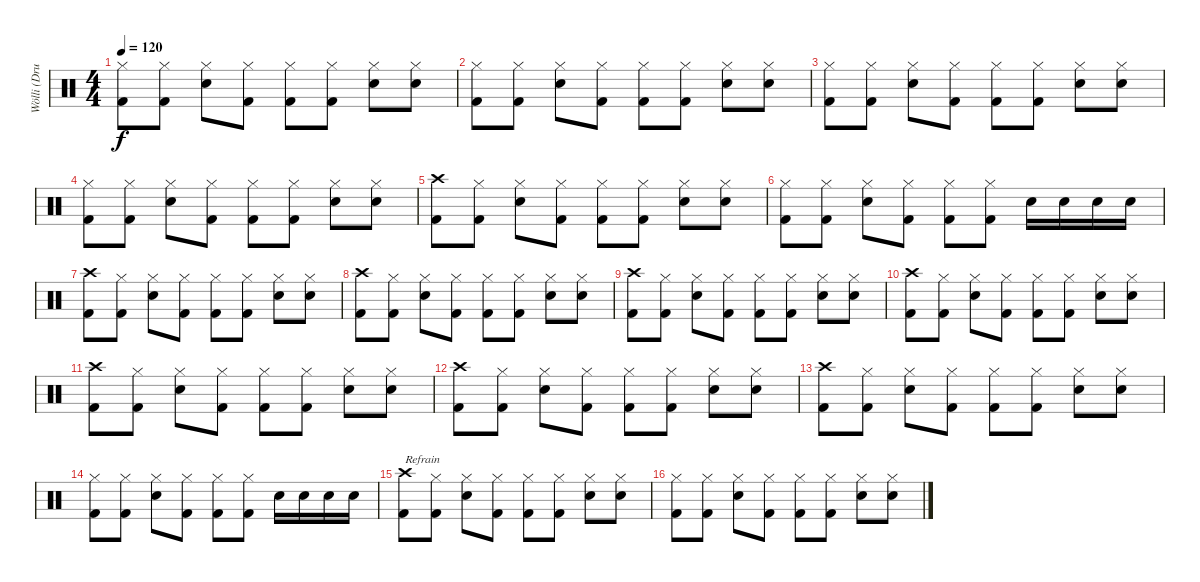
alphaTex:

\track ("Wölli (Drums)" "Wölli (Dru") {instrument percussion}
\staff {score}
\articulation defaults
\ts (4 4)
\tempo 120
\clef neutral
\ks c
("Hi-Hat (closed)" "Kick (hit) 2").8{dy f} ("Hi-Hat (closed)" "Kick (hit) 2").8 ("Hi-Hat (closed)" "Snare (hit) 2").8 ("Hi-Hat (closed)" "Kick (hit) 2").8 ("Hi-Hat (closed)" "Kick (hit) 2").8 ("Hi-Hat (closed)" "Kick (hit) 2").8 ("Hi-Hat (closed)" "Snare (hit) 2").8 ("Hi-Hat (closed)" "Snare (hit) 2").8 |
("Hi-Hat (closed)" "Kick (hit) 2").8 ("Hi-Hat (closed)" "Kick (hit) 2").8 ("Hi-Hat (closed)" "Snare (hit) 2").8 ("Hi-Hat (closed)" "Kick (hit) 2").8 ("Hi-Hat (closed)" "Kick (hit) 2").8 ("Hi-Hat (closed)" "Kick (hit) 2").8 ("Hi-Hat (closed)" "Snare (hit) 2").8 ("Hi-Hat (closed)" "Snare (hit) 2").8 |
("Hi-Hat (closed)" "Kick (hit) 2").8 ("Hi-Hat (closed)" "Kick (hit) 2").8 ("Hi-Hat (closed)" "Snare (hit) 2").8 ("Hi-Hat (closed)" "Kick (hit) 2").8 ("Hi-Hat (closed)" "Kick (hit) 2").8 ("Hi-Hat (closed)" "Kick (hit) 2").8 ("Hi-Hat (closed)" "Snare (hit) 2").8 ("Hi-Hat (closed)" "Snare (hit) 2").8 |
("Hi-Hat (closed)" "Kick (hit) 2").8 ("Hi-Hat (closed)" "Kick (hit) 2").8 ("Hi-Hat (closed)" "Snare (hit) 2").8 ("Hi-Hat (closed)" "Kick (hit) 2").8 ("Hi-Hat (closed)" "Kick (hit) 2").8 ("Hi-Hat (closed)" "Kick (hit) 2").8 ("Hi-Hat (closed)" "Snare (hit) 2").8 ("Hi-Hat (closed)" "Snare (hit) 2").8 |
("Crash high (hit)" "Kick (hit) 2").8 ("Hi-Hat (closed)" "Kick (hit) 2").8 ("Hi-Hat (closed)" "Snare (hit) 2").8 ("Hi-Hat (closed)" "Kick (hit) 2").8 ("Hi-Hat (closed)" "Kick (hit) 2").8 ("Hi-Hat (closed)" "Kick (hit) 2").8 ("Hi-Hat (closed)" "Snare (hit) 2").8 ("Hi-Hat (closed)" "Snare (hit) 2").8 |
("Hi-Hat (closed)" "Kick (hit) 2").8 ("Hi-Hat (closed)" "Kick (hit) 2").8 ("Hi-Hat (closed)" "Snare (hit) 2").8 ("Hi-Hat (closed)" "Kick (hit) 2").8 ("Hi-Hat (closed)" "Kick (hit) 2").8 ("Hi-Hat (closed)" "Kick (hit) 2").8 "Snare (hit) 2".16 "Snare (hit) 2".16 "Snare (hit) 2".16 "Snare (hit) 2".16 |
("Crash high (hit)" "Kick (hit) 2").8 ("Hi-Hat (closed)" "Kick (hit) 2").8 ("Hi-Hat (closed)" "Snare (hit) 2").8 ("Hi-Hat (closed)" "Kick (hit) 2").8 ("Hi-Hat (closed)" "Kick (hit) 2").8 ("Hi-Hat (closed)" "Kick (hit) 2").8 ("Hi-Hat (closed)" "Snare (hit) 2").8 ("Hi-Hat (closed)" "Snare (hit) 2").8 |
("Crash high (hit)" "Kick (hit) 2").8 ("Hi-Hat (closed)" "Kick (hit) 2").8 ("Hi-Hat (closed)" "Snare (hit) 2").8 ("Hi-Hat (closed)" "Kick (hit) 2").8 ("Hi-Hat (closed)" "Kick (hit) 2").8 ("Hi-Hat (closed)" "Kick (hit) 2").8 ("Hi-Hat (closed)" "Snare (hit) 2").8 ("Hi-Hat (closed)" "Snare (hit) 2").8 |
("Crash high (hit)" "Kick (hit) 2").8 ("Hi-Hat (closed)" "Kick (hit) 2").8 ("Hi-Hat (closed)" "Snare (hit) 2").8 ("Hi-Hat (closed)" "Kick (hit) 2").8 ("Hi-Hat (closed)" "Kick (hit) 2").8 ("Hi-Hat (closed)" "Kick (hit) 2").8 ("Hi-Hat (closed)" "Snare (hit) 2").8 ("Hi-Hat (closed)" "Snare (hit) 2").8 |
("Crash high (hit)" "Kick (hit) 2").8 ("Hi-Hat (closed)" "Kick (hit) 2").8 ("Hi-Hat (closed)" "Snare (hit) 2").8 ("Hi-Hat (closed)" "Kick (hit) 2").8 ("Hi-Hat (closed)" "Kick (hit) 2").8 ("Hi-Hat (closed)" "Kick (hit) 2").8 ("Hi-Hat (closed)" "Snare (hit) 2").8 ("Hi-Hat (closed)" "Snare (hit) 2").8 |
("Crash high (hit)" "Kick (hit) 2").8 ("Hi-Hat (closed)" "Kick (hit) 2").8 ("Hi-Hat (closed)" "Snare (hit) 2").8 ("Hi-Hat (closed)" "Kick (hit) 2").8 ("Hi-Hat (closed)" "Kick (hit) 2").8 ("Hi-Hat (closed)" "Kick (hit) 2").8 ("Hi-Hat (closed)" "Snare (hit) 2").8 ("Hi-Hat (closed)" "Snare (hit) 2").8 |
("Crash high (hit)" "Kick (hit) 2").8 ("Hi-Hat (closed)" "Kick (hit) 2").8 ("Hi-Hat (closed)" "Snare (hit) 2").8 ("Hi-Hat (closed)" "Kick (hit) 2").8 ("Hi-Hat (closed)" "Kick (hit) 2").8 ("Hi-Hat (closed)" "Kick (hit) 2").8 ("Hi-Hat (closed)" "Snare (hit) 2").8 ("Hi-Hat (closed)" "Snare (hit) 2").8 |
("Crash high (hit)" "Kick (hit) 2").8 ("Hi-Hat (closed)" "Kick (hit) 2").8 ("Hi-Hat (closed)" "Snare (hit) 2").8 ("Hi-Hat (closed)" "Kick (hit) 2").8 ("Hi-Hat (closed)" "Kick (hit) 2").8 ("Hi-Hat (closed)" "Kick (hit) 2").8 ("Hi-Hat (closed)" "Snare (hit) 2").8 ("Hi-Hat (closed)" "Snare (hit) 2").8 |
("Hi-Hat (closed)" "Kick (hit) 2").8 ("Hi-Hat (closed)" "Kick (hit) 2").8 ("Hi-Hat (closed)" "Snare (hit) 2").8 ("Hi-Hat (closed)" "Kick (hit) 2").8 ("Hi-Hat (closed)" "Kick (hit) 2").8 ("Hi-Hat (closed)" "Kick (hit) 2").8 "Snare (hit) 2".16 "Snare (hit) 2".16 "Snare (hit) 2".16 "Snare (hit) 2".16 |
("Crash high (hit)" "Kick (hit) 2").8{txt "Refrain"} ("Hi-Hat (closed)" "Kick (hit) 2").8 ("Hi-Hat (closed)" "Snare (hit) 2").8 ("Hi-Hat (closed)" "Kick (hit) 2").8 ("Hi-Hat (closed)" "Kick (hit) 2").8 ("Hi-Hat (closed)" "Kick (hit) 2").8 ("Hi-Hat (closed)" "Snare (hit) 2").8 ("Hi-Hat (closed)" "Snare (hit) 2").8 |
("Hi-Hat (closed)" "Kick (hit) 2").8 ("Hi-Hat (closed)" "Kick (hit) 2").8 ("Hi-Hat (closed)" "Snare (hit) 2").8 ("Hi-Hat (closed)" "Kick (hit) 2").8 ("Hi-Hat (closed)" "Kick (hit) 2").8 ("Hi-Hat (closed)" "Kick (hit) 2").8 ("Hi-Hat (closed)" "Snare (hit) 2").8 ("Hi-Hat (closed)" "Snare (hit) 2").8
